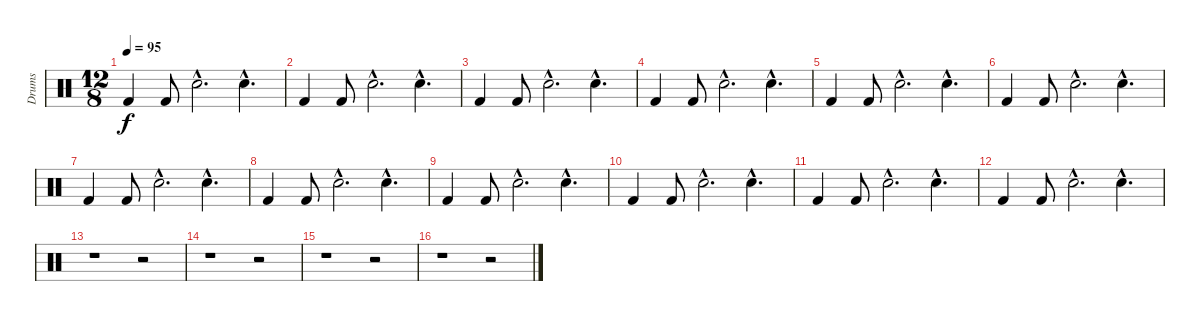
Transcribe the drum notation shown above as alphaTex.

\track ("Drums" "Drums") {instrument percussion}
\staff {score}
\articulation defaults
\ts (12 8)
\tempo 95
\clef neutral
\ks c "Kick (hit) 2".4{dy f} "Kick (hit) 2".8 "Snare (hit) 2"{hac}.2{d} "Snare (hit) 2"{hac}.4{d}
|
"Kick (hit) 2".4 "Kick (hit) 2".8 "Snare (hit) 2"{hac}.2{d} "Snare (hit) 2"{hac}.4{d} |
"Kick (hit) 2".4 "Kick (hit) 2".8 "Snare (hit) 2"{hac}.2{d} "Snare (hit) 2"{hac}.4{d} |
"Kick (hit) 2".4 "Kick (hit) 2".8 "Snare (hit) 2"{hac}.2{d} "Snare (hit) 2"{hac}.4{d} |
"Kick (hit) 2".4 "Kick (hit) 2".8 "Snare (hit) 2"{hac}.2{d} "Snare (hit) 2"{hac}.4{d} |
"Kick (hit) 2".4 "Kick (hit) 2".8 "Snare (hit) 2"{hac}.2{d} "Snare (hit) 2"{hac}.4{d} |
"Kick (hit) 2".4 "Kick (hit) 2".8 "Snare (hit) 2"{hac}.2{d} "Snare (hit) 2"{hac}.4{d} |
"Kick (hit) 2".4 "Kick (hit) 2".8 "Snare (hit) 2"{hac}.2{d} "Snare (hit) 2"{hac}.4{d} |
"Kick (hit) 2".4 "Kick (hit) 2".8 "Snare (hit) 2"{hac}.2{d} "Snare (hit) 2"{hac}.4{d} |
"Kick (hit) 2".4 "Kick (hit) 2".8 "Snare (hit) 2"{hac}.2{d} "Snare (hit) 2"{hac}.4{d} |
"Kick (hit) 2".4 "Kick (hit) 2".8 "Snare (hit) 2"{hac}.2{d} "Snare (hit) 2"{hac}.4{d} |
"Kick (hit) 2".4 "Kick (hit) 2".8 "Snare (hit) 2"{hac}.2{d} "Snare (hit) 2"{hac}.4{d} |
r.1 r.2 |
r.1 r.2 |
r.1 r.2 |
r.1 r.2
